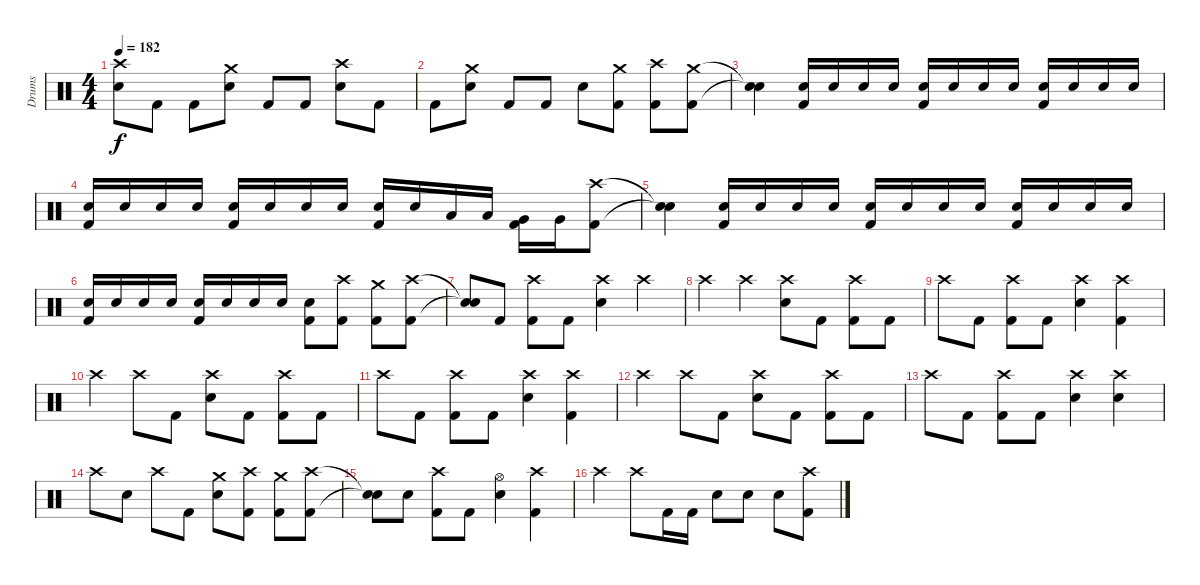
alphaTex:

\track ("Drums" "Drums") {instrument percussion}
\staff {score}
\articulation defaults
\ts (4 4)
\tempo 182
\clef neutral
\ks c
("Crash high (hit)" "Electric Snare (hit)").8{dy f} "Kick (hit) 2".8 "Kick (hit) 2".8 ("Crash medium (hit)" "Electric Snare (hit)").8 "Kick (hit) 2".8 "Kick (hit) 2".8 ("Crash high (hit)" "Electric Snare (hit)").8 "Kick (hit) 2".8 |
"Kick (hit) 2".8 ("Crash medium (hit)" "Electric Snare (hit)").8 "Kick (hit) 2".8 "Kick (hit) 2".8 "Electric Snare (hit)".8 ("Crash medium (hit)" "Kick (hit) 2").8 ("Crash high (hit)" "Kick (hit) 2").8 ("Crash medium (hit)" "Kick (hit) 2").8 |
("Snare (hit)"{t} "Snare (hit)"{t}).4 ("Electric Snare (hit)" "Kick (hit) 2").16 "Electric Snare (hit)".16 "Electric Snare (hit)".16 "Electric Snare (hit)".16 ("Electric Snare (hit)" "Kick (hit) 2").16 "Electric Snare (hit)".16 "Electric Snare (hit)".16 "Electric Snare (hit)".16 ("Electric Snare (hit)" "Kick (hit) 2").16 "Electric Snare (hit)".16 "Electric Snare (hit)".16 "Electric Snare (hit)".16 |
("Electric Snare (hit)" "Kick (hit) 2").16 "Electric Snare (hit)".16 "Electric Snare (hit)".16 "Electric Snare (hit)".16 ("Electric Snare (hit)" "Kick (hit) 2").16 "Electric Snare (hit)".16 "Electric Snare (hit)".16 "Electric Snare (hit)".16 ("Electric Snare (hit)" "Kick (hit) 2").16 "Electric Snare (hit)".16 "Low Tom (hit)".16 "Low Tom (hit)".16 ("Very Low Tom (hit)" "Kick (hit) 2").16 "Very Low Tom (hit)".16 ("Crash high (hit)" "Kick (hit) 2").8 |
("Snare (hit)"{t} "Snare (hit)"{t}).4 ("Electric Snare (hit)" "Kick (hit) 2").16 "Electric Snare (hit)".16 "Electric Snare (hit)".16 "Electric Snare (hit)".16 ("Electric Snare (hit)" "Kick (hit) 2").16 "Electric Snare (hit)".16 "Electric Snare (hit)".16 "Electric Snare (hit)".16 ("Electric Snare (hit)" "Kick (hit) 2").16 "Electric Snare (hit)".16 "Electric Snare (hit)".16 "Electric Snare (hit)".16 |
("Electric Snare (hit)" "Kick (hit) 2").16 "Electric Snare (hit)".16 "Electric Snare (hit)".16 "Electric Snare (hit)".16 ("Electric Snare (hit)" "Kick (hit) 2").16 "Electric Snare (hit)".16 "Electric Snare (hit)".16 "Electric Snare (hit)".16 ("Electric Snare (hit)" "Kick (hit) 2").8 ("Crash high (hit)" "Kick (hit) 2").8 ("Crash medium (hit)" "Kick (hit) 2").8 ("Crash high (hit)" "Kick (hit) 2").8 |
("Snare (hit)"{t} "Snare (hit)"{t}).8 "Kick (hit) 2".8 ("Crash high (hit)" "Kick (hit) 2").8 "Kick (hit) 2".8 ("Crash high (hit)" "Electric Snare (hit)").4 "Crash high (hit)".4 |
"Crash high (hit)".4 "Crash high (hit)".4 ("Crash high (hit)" "Electric Snare (hit)").8 "Kick (hit) 2".8 ("Crash high (hit)" "Kick (hit) 2").8 "Kick (hit) 2".8 |
"Crash high (hit)".8 "Kick (hit) 2".8 ("Crash high (hit)" "Kick (hit) 2").8 "Kick (hit) 2".8 ("Crash high (hit)" "Electric Snare (hit)").4 ("Crash high (hit)" "Kick (hit) 2").4 |
"Crash high (hit)".4 "Crash high (hit)".8 "Kick (hit) 2".8 ("Crash high (hit)" "Electric Snare (hit)").8 "Kick (hit) 2".8 ("Crash high (hit)" "Kick (hit) 2").8 "Kick (hit) 2".8 |
"Crash high (hit)".8 "Kick (hit) 2".8 ("Crash high (hit)" "Kick (hit) 2").8 "Kick (hit) 2".8 ("Crash high (hit)" "Electric Snare (hit)").4 ("Crash high (hit)" "Kick (hit) 2").4 |
"Crash high (hit)".4 "Crash high (hit)".8 "Kick (hit) 2".8 ("Crash high (hit)" "Electric Snare (hit)").8 "Kick (hit) 2".8 ("Crash high (hit)" "Kick (hit) 2").8 "Kick (hit) 2".8 |
"Crash high (hit)".8 "Kick (hit) 2".8 ("Crash high (hit)" "Kick (hit) 2").8 "Kick (hit) 2".8 ("Crash high (hit)" "Electric Snare (hit)").4 ("Crash high (hit)" "Electric Snare (hit)").4 |
"Crash high (hit)".8 "Electric Snare (hit)".8 "Crash high (hit)".8 "Kick (hit) 2".8 ("Crash medium (hit)" "Electric Snare (hit)").8 ("Crash high (hit)" "Kick (hit) 2").8 ("Crash medium (hit)" "Kick (hit) 2").8 ("Crash high (hit)" "Kick (hit) 2").8 |
("Snare (hit)"{t} "Snare (hit)"{t}).8 "Electric Snare (hit)".8 ("Crash high (hit)" "Kick (hit) 2").8 "Kick (hit) 2".8 ("Hi-Hat (open)" "Electric Snare (hit)").4 ("Crash high (hit)" "Kick (hit) 2").4 |
"Crash high (hit)".4 "Crash high (hit)".8 "Kick (hit) 2".16 "Kick (hit) 2".16 "Electric Snare (hit)".8 "Electric Snare (hit)".8 "Electric Snare (hit)".8 ("Crash high (hit)" "Kick (hit) 2").8
